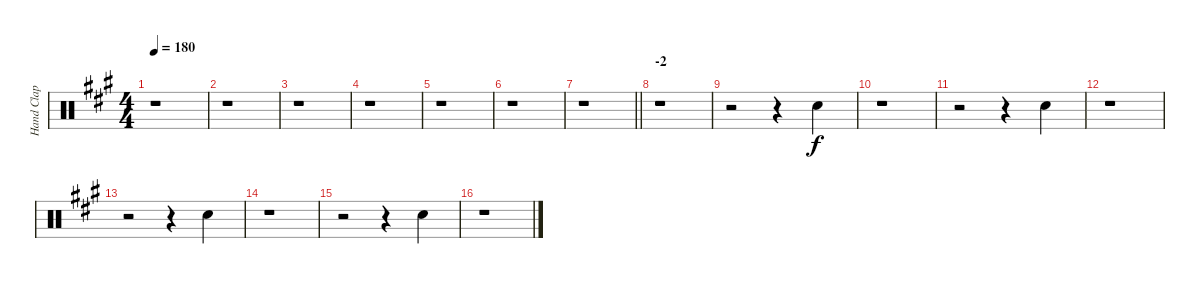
\track ("Hand Clap" "Hand Clap") {instrument percussion}
\staff {score}
\articulation defaults
\ts (4 4)
\tempo 180
\clef neutral
\ks a
r.1{dy f} |
r.1 |
r.1 |
r.1 |
r.1 |
r.1 |
\barLineRight lightlight
r.1 |
\section ("" "-2")
r.1 |
r.2 r.4 "Hand Clap (hit)".4 |
r.1 |
r.2 r.4 "Hand Clap (hit)".4 |
r.1 |
r.2 r.4 "Hand Clap (hit)".4 |
r.1 |
r.2 r.4 "Hand Clap (hit)".4 |
r.1
